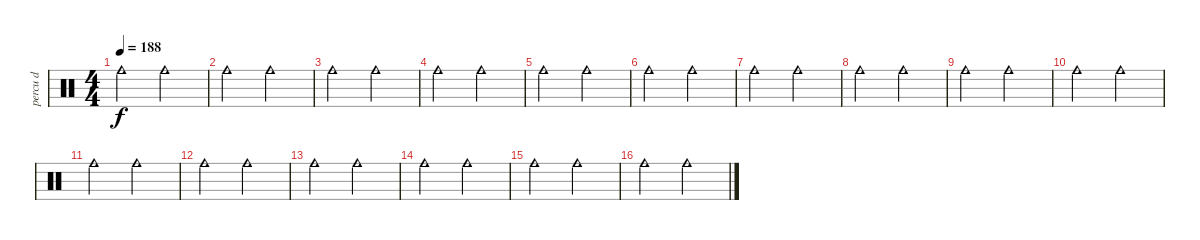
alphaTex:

\track ("percu d" "percu d") {instrument percussion}
\staff {score}
\articulation defaults
\ts (4 4)
\tempo 188
\clef neutral
\ks c "Cowbell medium (hit)".2{dy f} "Cowbell medium (hit)".2
|
"Cowbell medium (hit)".2 "Cowbell medium (hit)".2 |
"Cowbell medium (hit)".2 "Cowbell medium (hit)".2 |
"Cowbell medium (hit)".2 "Cowbell medium (hit)".2 |
"Cowbell medium (hit)".2 "Cowbell medium (hit)".2 |
"Cowbell medium (hit)".2 "Cowbell medium (hit)".2 |
"Cowbell medium (hit)".2 "Cowbell medium (hit)".2 |
"Cowbell medium (hit)".2 "Cowbell medium (hit)".2 |
"Cowbell medium (hit)".2 "Cowbell medium (hit)".2 |
"Cowbell medium (hit)".2 "Cowbell medium (hit)".2 |
"Cowbell medium (hit)".2 "Cowbell medium (hit)".2 |
"Cowbell medium (hit)".2 "Cowbell medium (hit)".2 |
"Cowbell medium (hit)".2 "Cowbell medium (hit)".2 |
"Cowbell medium (hit)".2 "Cowbell medium (hit)".2 |
"Cowbell medium (hit)".2 "Cowbell medium (hit)".2 |
"Cowbell medium (hit)".2 "Cowbell medium (hit)".2
